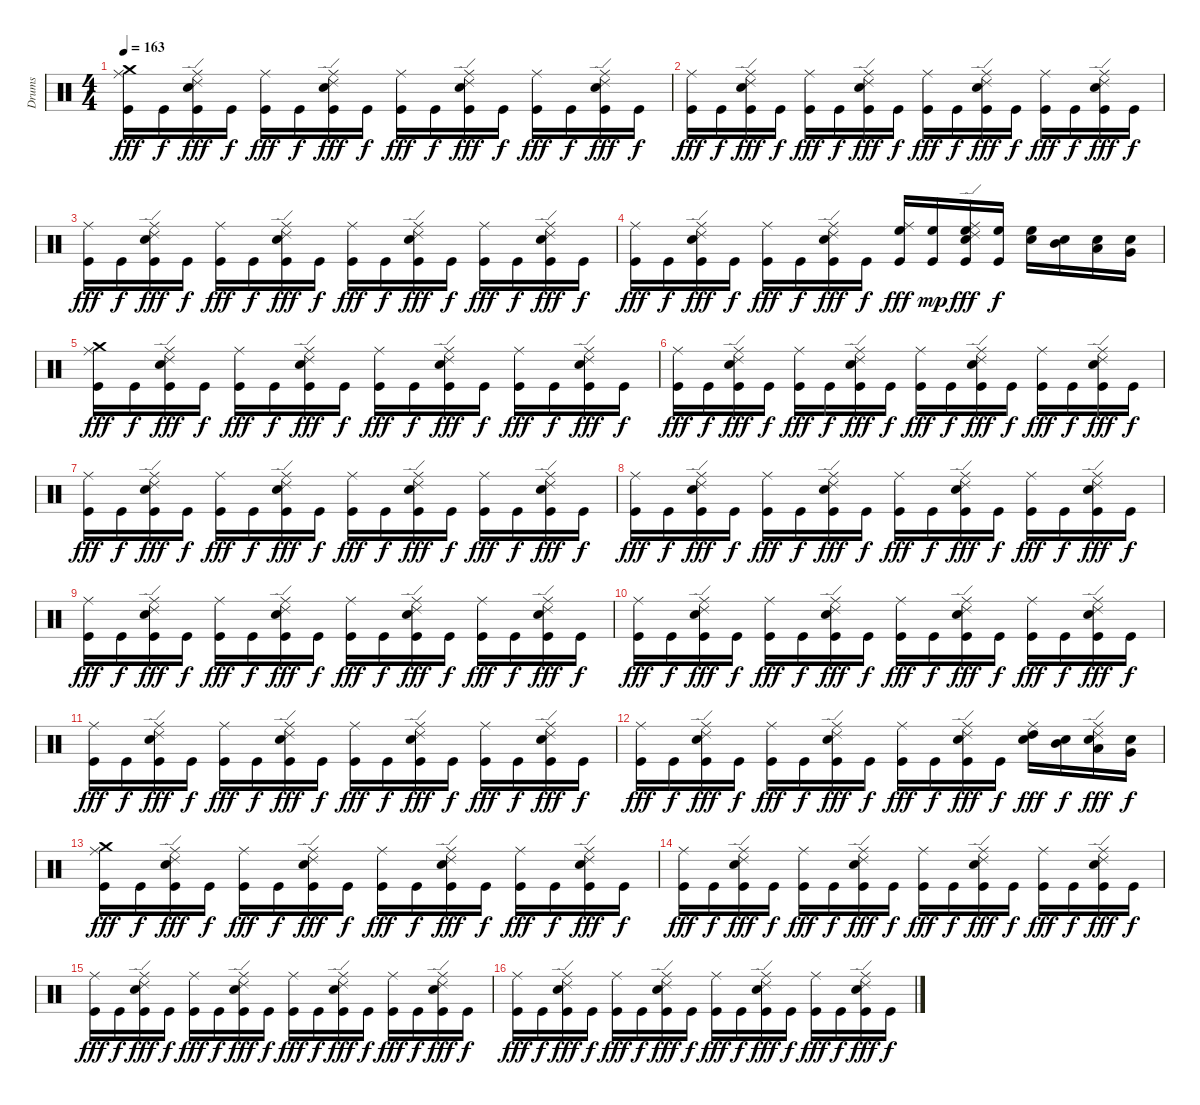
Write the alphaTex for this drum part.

\track ("Drums" "Drums") {instrument percussion}
\staff {score}
\articulation defaults
\ts (4 4)
\tempo 163
\clef neutral
\ks c
("Crash medium (hit)" "Kick (hit)" "Ride (middle)").16{dy fff} "Kick (hit)".16{dy f} ("Kick (hit)" "Ride (middle)" "Ride (edge) 2" "Electric Snare (hit)").16{dy fff} "Kick (hit)".16{dy f} ("Kick (hit)" "Ride (middle)").16{dy fff} "Kick (hit)".16{dy f} ("Ride (middle)" "Ride (edge) 2" "Kick (hit)" "Electric Snare (hit)").16{dy fff} "Kick (hit)".16{dy f} ("Kick (hit)" "Ride (middle)").16{dy fff} "Kick (hit)".16{dy f} ("Ride (edge) 2" "Kick (hit)" "Electric Snare (hit)" "Ride (middle)").16{dy fff} "Kick (hit)".16{dy f} ("Kick (hit)" "Ride (middle)").16{dy fff} "Kick (hit)".16{dy f} ("Ride (middle)" "Kick (hit)" "Electric Snare (hit)" "Ride (edge) 2").16{dy fff} "Kick (hit)".16{dy f} |
("Ride (middle)" "Kick (hit)").16{dy fff} "Kick (hit)".16{dy f} ("Kick (hit)" "Electric Snare (hit)" "Ride (middle)" "Ride (edge) 2").16{dy fff} "Kick (hit)".16{dy f} ("Ride (middle)" "Kick (hit)").16{dy fff} "Kick (hit)".16{dy f} ("Ride (edge) 2" "Kick (hit)" "Ride (middle)" "Electric Snare (hit)").16{dy fff} "Kick (hit)".16{dy f} ("Ride (middle)" "Kick (hit)").16{dy fff} "Kick (hit)".16{dy f} ("Ride (edge) 2" "Ride (middle)" "Kick (hit)" "Electric Snare (hit)").16{dy fff} "Kick (hit)".16{dy f} ("Kick (hit)" "Ride (middle)").16{dy fff} "Kick (hit)".16{dy f} ("Ride (edge) 2" "Kick (hit)" "Ride (middle)" "Electric Snare (hit)").16{dy fff} "Kick (hit)".16{dy f} |
("Ride (middle)" "Kick (hit)").16{dy fff} "Kick (hit)".16{dy f} ("Electric Snare (hit)" "Kick (hit)" "Ride (middle)" "Ride (edge) 2").16{dy fff} "Kick (hit)".16{dy f} ("Kick (hit)" "Ride (middle)").16{dy fff} "Kick (hit)".16{dy f} ("Ride (edge) 2" "Kick (hit)" "Electric Snare (hit)" "Ride (middle)").16{dy fff} "Kick (hit)".16{dy f} ("Ride (middle)" "Kick (hit)").16{dy fff} "Kick (hit)".16{dy f} ("Ride (middle)" "Kick (hit)" "Electric Snare (hit)" "Ride (edge) 2").16{dy fff} "Kick (hit)".16{dy f} ("Ride (middle)" "Kick (hit)").16{dy fff} "Kick (hit)".16{dy f} ("Ride (edge) 2" "Kick (hit)" "Electric Snare (hit)" "Ride (middle)").16{dy fff} "Kick (hit)".16{dy f} |
("Ride (middle)" "Kick (hit)").16{dy fff} "Kick (hit)".16{dy f} ("Electric Snare (hit)" "Ride (middle)" "Ride (edge) 2" "Kick (hit)").16{dy fff} "Kick (hit)".16{dy f} ("Ride (middle)" "Kick (hit)").16{dy fff} "Kick (hit)".16{dy f} ("Ride (edge) 2" "Ride (middle)" "Kick (hit)" "Electric Snare (hit)").16{dy fff} "Kick (hit)".16{dy f} ("High Floor Tom (hit)" "Ride (middle)" "Kick (hit)").16{dy fff} ("High Floor Tom (hit)" "Kick (hit)").16{dy mp} ("High Floor Tom (hit)" "Ride (edge) 2" "Kick (hit)" "Ride (middle)" "Electric Snare (hit)").16{dy fff} ("High Floor Tom (hit)" "Kick (hit)").16{dy f} ("High Floor Tom (hit)" "Electric Snare (hit)").16 ("Mid Tom (hit)" "Electric Snare (hit)").16 ("Low Tom (hit)" "Electric Snare (hit)").16 ("Very Low Tom (hit)" "Electric Snare (hit)").16 |
("Crash medium (hit)" "Kick (hit)" "Ride (middle)").16{dy fff} "Kick (hit)".16{dy f} ("Kick (hit)" "Electric Snare (hit)" "Ride (middle)" "Ride (edge) 2").16{dy fff} "Kick (hit)".16{dy f} ("Kick (hit)" "Ride (middle)").16{dy fff} "Kick (hit)".16{dy f} ("Kick (hit)" "Ride (edge) 2" "Electric Snare (hit)" "Ride (middle)").16{dy fff} "Kick (hit)".16{dy f} ("Kick (hit)" "Ride (middle)").16{dy fff} "Kick (hit)".16{dy f} ("Ride (edge) 2" "Electric Snare (hit)" "Kick (hit)" "Ride (middle)").16{dy fff} "Kick (hit)".16{dy f} ("Kick (hit)" "Ride (middle)").16{dy fff} "Kick (hit)".16{dy f} ("Ride (middle)" "Ride (edge) 2" "Electric Snare (hit)" "Kick (hit)").16{dy fff} "Kick (hit)".16{dy f} |
("Ride (middle)" "Kick (hit)").16{dy fff} "Kick (hit)".16{dy f} ("Electric Snare (hit)" "Kick (hit)" "Ride (middle)" "Ride (edge) 2").16{dy fff} "Kick (hit)".16{dy f} ("Kick (hit)" "Ride (middle)").16{dy fff} "Kick (hit)".16{dy f} ("Electric Snare (hit)" "Kick (hit)" "Ride (middle)" "Ride (edge) 2").16{dy fff} "Kick (hit)".16{dy f} ("Ride (middle)" "Kick (hit)").16{dy fff} "Kick (hit)".16{dy f} ("Ride (middle)" "Ride (edge) 2" "Kick (hit)" "Electric Snare (hit)").16{dy fff} "Kick (hit)".16{dy f} ("Ride (middle)" "Kick (hit)").16{dy fff} "Kick (hit)".16{dy f} ("Electric Snare (hit)" "Kick (hit)" "Ride (middle)" "Ride (edge) 2").16{dy fff} "Kick (hit)".16{dy f} |
("Kick (hit)" "Ride (middle)").16{dy fff} "Kick (hit)".16{dy f} ("Ride (middle)" "Kick (hit)" "Ride (edge) 2" "Electric Snare (hit)").16{dy fff} "Kick (hit)".16{dy f} ("Kick (hit)" "Ride (middle)").16{dy fff} "Kick (hit)".16{dy f} ("Ride (edge) 2" "Electric Snare (hit)" "Kick (hit)" "Ride (middle)").16{dy fff} "Kick (hit)".16{dy f} ("Ride (middle)" "Kick (hit)").16{dy fff} "Kick (hit)".16{dy f} ("Ride (middle)" "Ride (edge) 2" "Electric Snare (hit)" "Kick (hit)").16{dy fff} "Kick (hit)".16{dy f} ("Ride (middle)" "Kick (hit)").16{dy fff} "Kick (hit)".16{dy f} ("Kick (hit)" "Electric Snare (hit)" "Ride (edge) 2" "Ride (middle)").16{dy fff} "Kick (hit)".16{dy f} |
("Ride (middle)" "Kick (hit)").16{dy fff} "Kick (hit)".16{dy f} ("Electric Snare (hit)" "Kick (hit)" "Ride (middle)" "Ride (edge) 2").16{dy fff} "Kick (hit)".16{dy f} ("Kick (hit)" "Ride (middle)").16{dy fff} "Kick (hit)".16{dy f} ("Electric Snare (hit)" "Kick (hit)" "Ride (middle)" "Ride (edge) 2").16{dy fff} "Kick (hit)".16{dy f} ("Kick (hit)" "Ride (middle)").16{dy fff} "Kick (hit)".16{dy f} ("Kick (hit)" "Ride (edge) 2" "Electric Snare (hit)" "Ride (middle)").16{dy fff} "Kick (hit)".16{dy f} ("Ride (middle)" "Kick (hit)").16{dy fff} "Kick (hit)".16{dy f} ("Ride (edge) 2" "Electric Snare (hit)" "Kick (hit)" "Ride (middle)").16{dy fff} "Kick (hit)".16{dy f} |
("Kick (hit)" "Ride (middle)").16{dy fff} "Kick (hit)".16{dy f} ("Kick (hit)" "Electric Snare (hit)" "Ride (middle)" "Ride (edge) 2").16{dy fff} "Kick (hit)".16{dy f} ("Kick (hit)" "Ride (middle)").16{dy fff} "Kick (hit)".16{dy f} ("Kick (hit)" "Ride (edge) 2" "Electric Snare (hit)" "Ride (middle)").16{dy fff} "Kick (hit)".16{dy f} ("Kick (hit)" "Ride (middle)").16{dy fff} "Kick (hit)".16{dy f} ("Ride (edge) 2" "Electric Snare (hit)" "Kick (hit)" "Ride (middle)").16{dy fff} "Kick (hit)".16{dy f} ("Kick (hit)" "Ride (middle)").16{dy fff} "Kick (hit)".16{dy f} ("Ride (middle)" "Ride (edge) 2" "Electric Snare (hit)" "Kick (hit)").16{dy fff} "Kick (hit)".16{dy f} |
("Ride (middle)" "Kick (hit)").16{dy fff} "Kick (hit)".16{dy f} ("Electric Snare (hit)" "Kick (hit)" "Ride (middle)" "Ride (edge) 2").16{dy fff} "Kick (hit)".16{dy f} ("Kick (hit)" "Ride (middle)").16{dy fff} "Kick (hit)".16{dy f} ("Electric Snare (hit)" "Kick (hit)" "Ride (middle)" "Ride (edge) 2").16{dy fff} "Kick (hit)".16{dy f} ("Ride (middle)" "Kick (hit)").16{dy fff} "Kick (hit)".16{dy f} ("Ride (middle)" "Ride (edge) 2" "Kick (hit)" "Electric Snare (hit)").16{dy fff} "Kick (hit)".16{dy f} ("Ride (middle)" "Kick (hit)").16{dy fff} "Kick (hit)".16{dy f} ("Electric Snare (hit)" "Kick (hit)" "Ride (middle)" "Ride (edge) 2").16{dy fff} "Kick (hit)".16{dy f} |
("Kick (hit)" "Ride (middle)").16{dy fff} "Kick (hit)".16{dy f} ("Ride (middle)" "Kick (hit)" "Ride (edge) 2" "Electric Snare (hit)").16{dy fff} "Kick (hit)".16{dy f} ("Kick (hit)" "Ride (middle)").16{dy fff} "Kick (hit)".16{dy f} ("Ride (edge) 2" "Electric Snare (hit)" "Kick (hit)" "Ride (middle)").16{dy fff} "Kick (hit)".16{dy f} ("Ride (middle)" "Kick (hit)").16{dy fff} "Kick (hit)".16{dy f} ("Ride (middle)" "Ride (edge) 2" "Electric Snare (hit)" "Kick (hit)").16{dy fff} "Kick (hit)".16{dy f} ("Ride (middle)" "Kick (hit)").16{dy fff} "Kick (hit)".16{dy f} ("Kick (hit)" "Electric Snare (hit)" "Ride (edge) 2" "Ride (middle)").16{dy fff} "Kick (hit)".16{dy f} |
("Ride (middle)" "Kick (hit)").16{dy fff} "Kick (hit)".16{dy f} ("Electric Snare (hit)" "Kick (hit)" "Ride (middle)" "Ride (edge) 2").16{dy fff} "Kick (hit)".16{dy f} ("Kick (hit)" "Ride (middle)").16{dy fff} "Kick (hit)".16{dy f} ("Electric Snare (hit)" "Kick (hit)" "Ride (middle)" "Ride (edge) 2").16{dy fff} "Kick (hit)".16{dy f} ("Kick (hit)" "Ride (middle)").16{dy fff} "Kick (hit)".16{dy f} ("Kick (hit)" "Ride (edge) 2" "Electric Snare (hit)" "Ride (middle)").16{dy fff} "Kick (hit)".16{dy f} ("Electric Snare (hit)" "Ride (middle)" "High Tom (hit)").16{dy fff} ("Electric Snare (hit)" "Mid Tom (hit)").16{dy f} ("Electric Snare (hit)" "Low Tom (hit)" "Ride (edge) 2" "Ride (middle)").16{dy fff} ("Very Low Tom (hit)" "Electric Snare (hit)").16{dy f} |
("Ride (middle)" "Kick (hit)" "Crash medium (hit)").16{dy fff} "Kick (hit)".16{dy f} ("Electric Snare (hit)" "Kick (hit)" "Ride (middle)" "Ride (edge) 2").16{dy fff} "Kick (hit)".16{dy f} ("Kick (hit)" "Ride (middle)").16{dy fff} "Kick (hit)".16{dy f} ("Kick (hit)" "Ride (edge) 2" "Electric Snare (hit)" "Ride (middle)").16{dy fff} "Kick (hit)".16{dy f} ("Kick (hit)" "Ride (middle)").16{dy fff} "Kick (hit)".16{dy f} ("Ride (edge) 2" "Electric Snare (hit)" "Kick (hit)" "Ride (middle)").16{dy fff} "Kick (hit)".16{dy f} ("Kick (hit)" "Ride (middle)").16{dy fff} "Kick (hit)".16{dy f} ("Ride (middle)" "Ride (edge) 2" "Electric Snare (hit)" "Kick (hit)").16{dy fff} "Kick (hit)".16{dy f} |
("Ride (middle)" "Kick (hit)").16{dy fff} "Kick (hit)".16{dy f} ("Electric Snare (hit)" "Kick (hit)" "Ride (middle)" "Ride (edge) 2").16{dy fff} "Kick (hit)".16{dy f} ("Kick (hit)" "Ride (middle)").16{dy fff} "Kick (hit)".16{dy f} ("Electric Snare (hit)" "Kick (hit)" "Ride (middle)" "Ride (edge) 2").16{dy fff} "Kick (hit)".16{dy f} ("Ride (middle)" "Kick (hit)").16{dy fff} "Kick (hit)".16{dy f} ("Ride (middle)" "Ride (edge) 2" "Kick (hit)" "Electric Snare (hit)").16{dy fff} "Kick (hit)".16{dy f} ("Ride (middle)" "Kick (hit)").16{dy fff} "Kick (hit)".16{dy f} ("Electric Snare (hit)" "Kick (hit)" "Ride (middle)" "Ride (edge) 2").16{dy fff} "Kick (hit)".16{dy f} |
("Kick (hit)" "Ride (middle)").16{dy fff} "Kick (hit)".16{dy f} ("Ride (middle)" "Kick (hit)" "Ride (edge) 2" "Electric Snare (hit)").16{dy fff} "Kick (hit)".16{dy f} ("Kick (hit)" "Ride (middle)").16{dy fff} "Kick (hit)".16{dy f} ("Ride (edge) 2" "Electric Snare (hit)" "Kick (hit)" "Ride (middle)").16{dy fff} "Kick (hit)".16{dy f} ("Ride (middle)" "Kick (hit)").16{dy fff} "Kick (hit)".16{dy f} ("Ride (middle)" "Ride (edge) 2" "Electric Snare (hit)" "Kick (hit)").16{dy fff} "Kick (hit)".16{dy f} ("Ride (middle)" "Kick (hit)").16{dy fff} "Kick (hit)".16{dy f} ("Kick (hit)" "Electric Snare (hit)" "Ride (edge) 2" "Ride (middle)").16{dy fff} "Kick (hit)".16{dy f} |
("Ride (middle)" "Kick (hit)").16{dy fff} "Kick (hit)".16{dy f} ("Electric Snare (hit)" "Kick (hit)" "Ride (middle)" "Ride (edge) 2").16{dy fff} "Kick (hit)".16{dy f} ("Kick (hit)" "Ride (middle)").16{dy fff} "Kick (hit)".16{dy f} ("Electric Snare (hit)" "Kick (hit)" "Ride (middle)" "Ride (edge) 2").16{dy fff} "Kick (hit)".16{dy f} ("Kick (hit)" "Ride (middle)").16{dy fff} "Kick (hit)".16{dy f} ("Kick (hit)" "Ride (edge) 2" "Electric Snare (hit)" "Ride (middle)").16{dy fff} "Kick (hit)".16{dy f} ("Ride (middle)" "Kick (hit)").16{dy fff} "Kick (hit)".16{dy f} ("Ride (edge) 2" "Electric Snare (hit)" "Kick (hit)" "Ride (middle)").16{dy fff} "Kick (hit)".16{dy f}
